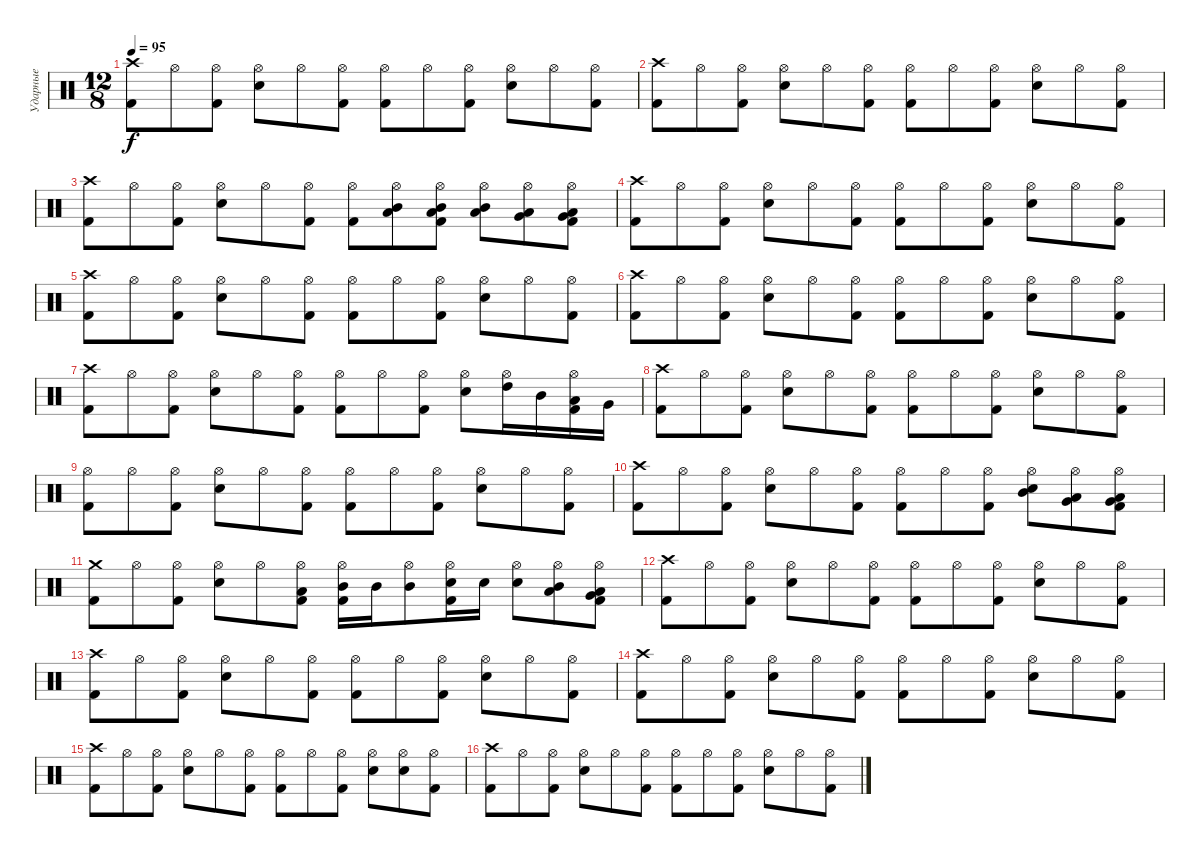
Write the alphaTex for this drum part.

\track ("Ударные" "Ударные") {instrument percussion}
\staff {score}
\articulation defaults
\ts (12 8)
\tempo 95
\clef neutral
\ks c
("Crash high (hit)" "Kick (hit) 2").8{dy f} "Hi-Hat (open)".8 ("Hi-Hat (open)" "Kick (hit) 2").8 ("Hi-Hat (open)" "Electric Snare (hit)").8 "Hi-Hat (open)".8 ("Hi-Hat (open)" "Kick (hit) 2").8 ("Hi-Hat (open)" "Kick (hit) 2").8 "Hi-Hat (open)".8 ("Hi-Hat (open)" "Kick (hit) 2").8 ("Hi-Hat (open)" "Electric Snare (hit)").8 "Hi-Hat (open)".8 ("Hi-Hat (open)" "Kick (hit) 2").8 |
("Crash high (hit)" "Kick (hit) 2").8 "Hi-Hat (open)".8 ("Hi-Hat (open)" "Kick (hit) 2").8 ("Hi-Hat (open)" "Electric Snare (hit)").8 "Hi-Hat (open)".8 ("Hi-Hat (open)" "Kick (hit) 2").8 ("Hi-Hat (open)" "Kick (hit) 2").8 "Hi-Hat (open)".8 ("Hi-Hat (open)" "Kick (hit) 2").8 ("Hi-Hat (open)" "Electric Snare (hit)").8 "Hi-Hat (open)".8 ("Hi-Hat (open)" "Kick (hit) 2").8 |
("Crash high (hit)" "Kick (hit) 2").8 "Hi-Hat (open)".8 ("Hi-Hat (open)" "Kick (hit) 2").8 ("Hi-Hat (open)" "Electric Snare (hit)").8 "Hi-Hat (open)".8 ("Hi-Hat (open)" "Kick (hit) 2").8 ("Hi-Hat (open)" "Kick (hit) 2").8 ("Hi-Hat (open)" "Mid Tom (hit)" "Low Tom (hit)").8 ("Hi-Hat (open)" "Mid Tom (hit)" "Low Tom (hit)" "Kick (hit) 2").8 ("Hi-Hat (open)" "Mid Tom (hit)" "Low Tom (hit)").8 ("Hi-Hat (open)" "Low Tom (hit)" "Very Low Tom (hit)").8 ("Hi-Hat (open)" "Very Low Tom (hit)" "Low Floor Tom (hit)" "Kick (hit) 2").8 |
("Crash high (hit)" "Kick (hit) 2").8 "Hi-Hat (open)".8 ("Hi-Hat (open)" "Kick (hit) 2").8 ("Hi-Hat (open)" "Electric Snare (hit)").8 "Hi-Hat (open)".8 ("Hi-Hat (open)" "Kick (hit) 2").8 ("Hi-Hat (open)" "Kick (hit) 2").8 "Hi-Hat (open)".8 ("Hi-Hat (open)" "Kick (hit) 2").8 ("Hi-Hat (open)" "Electric Snare (hit)").8 "Hi-Hat (open)".8 ("Hi-Hat (open)" "Kick (hit) 2").8 |
("Crash high (hit)" "Kick (hit) 2").8 "Hi-Hat (open)".8 ("Hi-Hat (open)" "Kick (hit) 2").8 ("Hi-Hat (open)" "Electric Snare (hit)").8 "Hi-Hat (open)".8 ("Hi-Hat (open)" "Kick (hit) 2").8 ("Hi-Hat (open)" "Kick (hit) 2").8 "Hi-Hat (open)".8 ("Hi-Hat (open)" "Kick (hit) 2").8 ("Hi-Hat (open)" "Electric Snare (hit)").8 "Hi-Hat (open)".8 ("Hi-Hat (open)" "Kick (hit) 2").8 |
("Crash high (hit)" "Kick (hit) 2").8 "Hi-Hat (open)".8 ("Hi-Hat (open)" "Kick (hit) 2").8 ("Hi-Hat (open)" "Electric Snare (hit)").8 "Hi-Hat (open)".8 ("Hi-Hat (open)" "Kick (hit) 2").8 ("Hi-Hat (open)" "Kick (hit) 2").8 "Hi-Hat (open)".8 ("Hi-Hat (open)" "Kick (hit) 2").8 ("Hi-Hat (open)" "Electric Snare (hit)").8 "Hi-Hat (open)".8 ("Hi-Hat (open)" "Kick (hit) 2").8 |
("Crash high (hit)" "Kick (hit) 2").8 "Hi-Hat (open)".8 ("Hi-Hat (open)" "Kick (hit) 2").8 ("Hi-Hat (open)" "Electric Snare (hit)").8 "Hi-Hat (open)".8 ("Hi-Hat (open)" "Kick (hit) 2").8 ("Hi-Hat (open)" "Kick (hit) 2").8 "Hi-Hat (open)".8 ("Hi-Hat (open)" "Kick (hit) 2").8 ("Hi-Hat (open)" "Electric Snare (hit)").8 ("Hi-Hat (open)" "High Tom (hit)").16 "Mid Tom (hit)".16 ("Hi-Hat (open)" "Low Tom (hit)" "Kick (hit) 2").16 "Very Low Tom (hit)".16 |
("Crash high (hit)" "Kick (hit) 2").8 "Hi-Hat (open)".8 ("Hi-Hat (open)" "Kick (hit) 2").8 ("Hi-Hat (open)" "Electric Snare (hit)").8 "Hi-Hat (open)".8 ("Hi-Hat (open)" "Kick (hit) 2").8 ("Hi-Hat (open)" "Kick (hit) 2").8 "Hi-Hat (open)".8 ("Hi-Hat (open)" "Kick (hit) 2").8 ("Hi-Hat (open)" "Electric Snare (hit)").8 "Hi-Hat (open)".8 ("Hi-Hat (open)" "Kick (hit) 2").8 |
("Hi-Hat (open)" "Kick (hit) 2").8 "Hi-Hat (open)".8 ("Hi-Hat (open)" "Kick (hit) 2").8 ("Hi-Hat (open)" "Electric Snare (hit)").8 "Hi-Hat (open)".8 ("Hi-Hat (open)" "Kick (hit) 2").8 ("Hi-Hat (open)" "Kick (hit) 2").8 "Hi-Hat (open)".8 ("Hi-Hat (open)" "Kick (hit) 2").8 ("Hi-Hat (open)" "Electric Snare (hit)").8 "Hi-Hat (open)".8 ("Hi-Hat (open)" "Kick (hit) 2").8 |
("Crash high (hit)" "Kick (hit) 2").8 "Hi-Hat (open)".8 ("Hi-Hat (open)" "Kick (hit) 2").8 ("Hi-Hat (open)" "Electric Snare (hit)").8 "Hi-Hat (open)".8 ("Hi-Hat (open)" "Kick (hit) 2").8 ("Hi-Hat (open)" "Kick (hit) 2").8 "Hi-Hat (open)".8 ("Hi-Hat (open)" "Kick (hit) 2").8 ("Hi-Hat (open)" "Mid Tom (hit)" "Electric Snare (hit)").8 ("Hi-Hat (open)" "Low Tom (hit)" "Very Low Tom (hit)").8 ("Hi-Hat (open)" "Very Low Tom (hit)" "Low Floor Tom (hit)" "Kick (hit) 2").8 |
("Crash medium (hit)" "Kick (hit) 2").8 "Hi-Hat (open)".8 ("Hi-Hat (open)" "Kick (hit) 2").8 ("Hi-Hat (open)" "Electric Snare (hit)").8 "Hi-Hat (open)".8 ("Hi-Hat (open)" "Low Tom (hit)" "Kick (hit) 2").8 ("Hi-Hat (open)" "Mid Tom (hit)" "Kick (hit) 2").16 "Mid Tom (hit)".16 ("Hi-Hat (open)" "Mid Tom (hit)").8 ("Hi-Hat (open)" "Electric Snare (hit)" "Kick (hit) 2").16 "Electric Snare (hit)".16 ("Hi-Hat (open)" "Electric Snare (hit)").8 ("Hi-Hat (open)" "Mid Tom (hit)" "Low Tom (hit)").8 ("Hi-Hat (open)" "Low Tom (hit)" "Very Low Tom (hit)" "Kick (hit) 2").8 |
("Crash high (hit)" "Kick (hit) 2").8 "Hi-Hat (open)".8 ("Hi-Hat (open)" "Kick (hit) 2").8 ("Hi-Hat (open)" "Electric Snare (hit)").8 "Hi-Hat (open)".8 ("Hi-Hat (open)" "Kick (hit) 2").8 ("Hi-Hat (open)" "Kick (hit) 2").8 "Hi-Hat (open)".8 ("Hi-Hat (open)" "Kick (hit) 2").8 ("Hi-Hat (open)" "Electric Snare (hit)").8 "Hi-Hat (open)".8 ("Hi-Hat (open)" "Kick (hit) 2").8 |
("Crash high (hit)" "Kick (hit) 2").8 "Hi-Hat (open)".8 ("Hi-Hat (open)" "Kick (hit) 2").8 ("Hi-Hat (open)" "Electric Snare (hit)").8 "Hi-Hat (open)".8 ("Hi-Hat (open)" "Kick (hit) 2").8 ("Hi-Hat (open)" "Kick (hit) 2").8 "Hi-Hat (open)".8 ("Hi-Hat (open)" "Kick (hit) 2").8 ("Hi-Hat (open)" "Electric Snare (hit)").8 "Hi-Hat (open)".8 ("Hi-Hat (open)" "Kick (hit) 2").8 |
("Crash high (hit)" "Kick (hit) 2").8 "Hi-Hat (open)".8 ("Hi-Hat (open)" "Kick (hit) 2").8 ("Hi-Hat (open)" "Electric Snare (hit)").8 "Hi-Hat (open)".8 ("Hi-Hat (open)" "Kick (hit) 2").8 ("Hi-Hat (open)" "Kick (hit) 2").8 "Hi-Hat (open)".8 ("Hi-Hat (open)" "Kick (hit) 2").8 ("Hi-Hat (open)" "Electric Snare (hit)").8 "Hi-Hat (open)".8 ("Hi-Hat (open)" "Kick (hit) 2").8 |
("Crash high (hit)" "Kick (hit) 2").8 "Hi-Hat (open)".8 ("Hi-Hat (open)" "Kick (hit) 2").8 ("Hi-Hat (open)" "Electric Snare (hit)").8 "Hi-Hat (open)".8 ("Hi-Hat (open)" "Kick (hit) 2").8 ("Hi-Hat (open)" "Kick (hit) 2").8 "Hi-Hat (open)".8 ("Hi-Hat (open)" "Kick (hit) 2").8 ("Hi-Hat (open)" "Electric Snare (hit)").8 ("Hi-Hat (open)" "Electric Snare (hit)").8 ("Hi-Hat (open)" "Kick (hit) 2").8 |
("Crash high (hit)" "Kick (hit) 2").8 "Hi-Hat (open)".8 ("Hi-Hat (open)" "Kick (hit) 2").8 ("Hi-Hat (open)" "Electric Snare (hit)").8 "Hi-Hat (open)".8 ("Hi-Hat (open)" "Kick (hit) 2").8 ("Hi-Hat (open)" "Kick (hit) 2").8 "Hi-Hat (open)".8 ("Hi-Hat (open)" "Kick (hit) 2").8 ("Hi-Hat (open)" "Electric Snare (hit)").8 "Hi-Hat (open)".8 ("Hi-Hat (open)" "Kick (hit) 2").8
